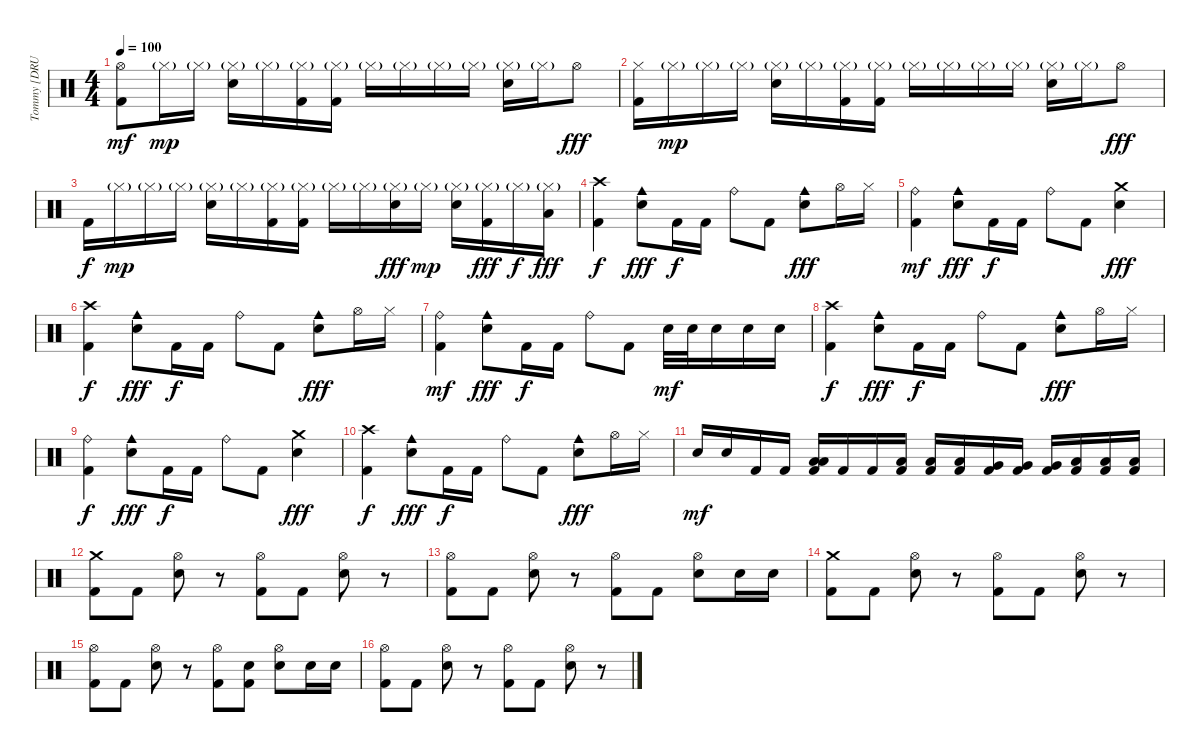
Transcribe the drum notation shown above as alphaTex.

\track ("Tommy [DRUMS]" "Tommy [DRU") {instrument percussion}
\staff {score}
\articulation defaults
\ts (4 4)
\tempo 100
\clef neutral
\ks c
("Hi-Hat (open)" "Kick (hit) 2").8{dy mf} "Hi-Hat (closed)"{g}.16{dy mp} "Hi-Hat (closed)"{g}.16 ("Hi-Hat (closed)"{g} "Snare (hit) 2").16 "Hi-Hat (closed)"{g}.16 ("Hi-Hat (closed)"{g} "Kick (hit) 2").16 ("Hi-Hat (closed)"{g} "Kick (hit) 2").16 "Hi-Hat (closed)"{g}.16 "Hi-Hat (closed)"{g}.16 "Hi-Hat (closed)"{g}.16 "Hi-Hat (closed)"{g}.16 ("Hi-Hat (closed)"{g} "Snare (hit) 2").16 "Hi-Hat (closed)"{g}.16 "Hi-Hat (open)".8{dy fff} |
("Hi-Hat (closed)" "Kick (hit) 2").16 "Hi-Hat (closed)"{g}.16{dy mp} "Hi-Hat (closed)"{g}.16 "Hi-Hat (closed)"{g}.16 ("Hi-Hat (closed)"{g} "Snare (hit) 2").16 "Hi-Hat (closed)"{g}.16 ("Hi-Hat (closed)"{g} "Kick (hit) 2").16 ("Hi-Hat (closed)"{g} "Kick (hit) 2").16 "Hi-Hat (closed)"{g}.16 "Hi-Hat (closed)"{g}.16 "Hi-Hat (closed)"{g}.16 "Hi-Hat (closed)"{g}.16 ("Hi-Hat (closed)"{g} "Snare (hit) 2").16 "Hi-Hat (closed)"{g}.16 "Hi-Hat (open)".8{dy fff} |
"Kick (hit) 2".16{dy f} "Hi-Hat (closed)"{g}.16{dy mp} "Hi-Hat (closed)"{g}.16 "Hi-Hat (closed)"{g}.16 ("Hi-Hat (closed)"{g} "Snare (hit) 2").16 "Hi-Hat (closed)"{g}.16 ("Hi-Hat (closed)"{g} "Kick (hit) 2").16 ("Hi-Hat (closed)"{g} "Kick (hit) 2").16 "Hi-Hat (closed)"{g}.16 "Hi-Hat (closed)"{g}.16 ("Hi-Hat (closed)"{g} "Snare (hit) 2").16{dy fff} "Hi-Hat (closed)"{g}.16{dy mp} ("Hi-Hat (closed)"{g} "Snare (hit) 2").16 ("Hi-Hat (closed)"{g} "Kick (hit) 2").16{dy fff} "Hi-Hat (closed)"{g}.16{dy f} ("Hi-Hat (closed)"{g} "Low Tom (hit)").16{dy fff} |
("Crash high (hit)" "Kick (hit) 2").4{dy f} ("Cowbell medium (hit)" "Snare (hit) 2").8{dy fff} "Kick (hit) 2".16{dy f} "Kick (hit) 2".16 "Ride (bell)".8 "Kick (hit) 2".8 ("Cowbell medium (hit)" "Snare (hit) 2").8{dy fff} "Hi-Hat (open)".16 "Hi-Hat (closed)".16 |
("Ride (bell)" "Kick (hit) 2").4{dy mf} ("Cowbell medium (hit)" "Snare (hit) 2").8{dy fff} "Kick (hit) 2".16{dy f} "Kick (hit) 2".16 "Ride (bell)".8 "Kick (hit) 2".8 ("Crash medium (hit)" "Snare (hit) 2").4{dy fff} |
("Crash high (hit)" "Kick (hit) 2").4{dy f} ("Cowbell medium (hit)" "Snare (hit) 2").8{dy fff} "Kick (hit) 2".16{dy f} "Kick (hit) 2".16 "Ride (bell)".8 "Kick (hit) 2".8 ("Cowbell medium (hit)" "Snare (hit) 2").8{dy fff} "Hi-Hat (open)".16 "Hi-Hat (closed)".16 |
("Ride (bell)" "Kick (hit) 2").4{dy mf} ("Cowbell medium (hit)" "Snare (hit) 2").8{dy fff} "Kick (hit) 2".16{dy f} "Kick (hit) 2".16 "Ride (bell)".8 "Kick (hit) 2".8 "Snare (hit) 2".32{dy mf} "Snare (hit) 2".32 "Snare (hit) 2".16 "Snare (hit) 2".16 "Snare (hit) 2".16 |
("Crash high (hit)" "Kick (hit) 2").4{dy f} ("Cowbell medium (hit)" "Snare (hit) 2").8{dy fff} "Kick (hit) 2".16{dy f} "Kick (hit) 2".16 "Ride (bell)".8 "Kick (hit) 2".8 ("Cowbell medium (hit)" "Snare (hit) 2").8{dy fff} "Hi-Hat (open)".16 "Hi-Hat (closed)".16 |
("Ride (bell)" "Kick (hit) 2").4{dy f} ("Cowbell medium (hit)" "Snare (hit) 2").8{dy fff} "Kick (hit) 2".16{dy f} "Kick (hit) 2".16 "Ride (bell)".8 "Kick (hit) 2".8 ("Crash medium (hit)" "Snare (hit) 2").4{dy fff} |
("Crash high (hit)" "Kick (hit) 2").4{dy f} ("Cowbell medium (hit)" "Snare (hit) 2").8{dy fff} "Kick (hit) 2".16{dy f} "Kick (hit) 2".16 "Ride (bell)".8 "Kick (hit) 2".8 ("Cowbell medium (hit)" "Snare (hit) 2").8{dy fff} "Hi-Hat (open)".16 "Hi-Hat (closed)".16 |
"Snare (hit) 2".16{dy mf} "Snare (hit) 2".16 "Kick (hit) 2".16 "Kick (hit) 2".16 ("Low Tom (hit)" "Low Tom (hit)" "Kick (hit) 2").16 "Kick (hit) 2".16 "Kick (hit) 2".16 ("Low Tom (hit)" "Kick (hit) 2").16 ("Low Tom (hit)" "Kick (hit) 2").16 ("Low Tom (hit)" "Kick (hit) 2").16 ("Very Low Tom (hit)" "Kick (hit) 2").16 ("Very Low Tom (hit)" "Kick (hit) 2").16 ("Very Low Tom (hit)" "Kick (hit) 2").16 ("Low Floor Tom (hit)" "Kick (hit) 2").16 ("Low Floor Tom (hit)" "Kick (hit) 2").16 ("Low Floor Tom (hit)" "Kick (hit) 2").16 |
("Crash medium (hit)" "Kick (hit) 2").8 "Kick (hit) 2".8 ("Hi-Hat (open)" "Snare (hit) 2").8 r.8 ("Hi-Hat (open)" "Kick (hit) 2").8 "Kick (hit) 2".8 ("Hi-Hat (open)" "Snare (hit) 2").8 r.8 |
("Hi-Hat (open)" "Kick (hit) 2").8 "Kick (hit) 2".8 ("Hi-Hat (open)" "Snare (hit) 2").8 r.8 ("Hi-Hat (open)" "Kick (hit) 2").8 "Kick (hit) 2".8 ("Hi-Hat (open)" "Snare (hit) 2").8 "Snare (hit) 2".16 "Snare (hit) 2".16 |
("Crash medium (hit)" "Kick (hit) 2").8 "Kick (hit) 2".8 ("Hi-Hat (open)" "Snare (hit) 2").8 r.8 ("Hi-Hat (open)" "Kick (hit) 2").8 "Kick (hit) 2".8 ("Hi-Hat (open)" "Snare (hit) 2").8 r.8 |
("Hi-Hat (open)" "Kick (hit) 2").8 "Kick (hit) 2".8 ("Hi-Hat (open)" "Snare (hit) 2").8 r.8 ("Hi-Hat (open)" "Kick (hit) 2").8 ("Snare (hit) 2" "Kick (hit) 2").8 ("Hi-Hat (open)" "Snare (hit) 2").8 "Snare (hit) 2".16 "Snare (hit) 2".16 |
("Hi-Hat (open)" "Kick (hit) 2").8 "Kick (hit) 2".8 ("Hi-Hat (open)" "Snare (hit) 2").8 r.8 ("Hi-Hat (open)" "Kick (hit) 2").8 "Kick (hit) 2".8 ("Hi-Hat (open)" "Snare (hit) 2").8 r.8
